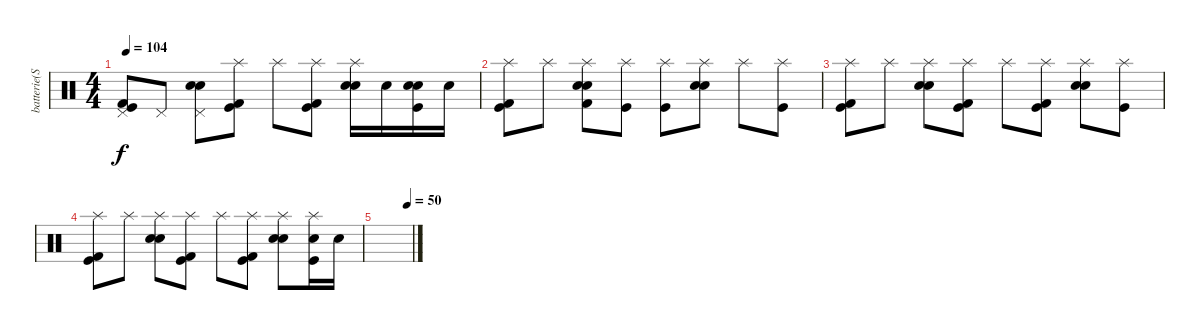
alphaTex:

\track ("batterie(Schemel)" "batterie(S") {instrument percussion}
\staff {score}
\articulation defaults
\ts (4 4)
\tempo 104
\clef neutral
\ks c
("Pedal Hi-Hat (hit)" "Kick (hit) 2" "Kick (hit)").8{dy f} "Pedal Hi-Hat (hit)".8 ("Pedal Hi-Hat (hit)" "Electric Snare (hit)" "Snare (hit) 2").8 ("Splash (hit)" "Kick (hit) 2" "Kick (hit)").8 "Splash (hit)".8 ("Splash (hit)" "Kick (hit) 2" "Kick (hit)").8 ("Splash (hit)" "Electric Snare (hit)" "Snare (hit) 2").16 "Snare (hit) 2".16 ("Electric Snare (hit)" "Snare (hit) 2" "Kick (hit)").16 "Snare (hit) 2".16 |
("Splash (hit)" "Kick (hit) 2" "Kick (hit)").8 "Splash (hit)".8 ("Splash (hit)" "Electric Snare (hit)" "Snare (hit) 2" "Kick (hit) 2").8 ("Splash (hit)" "Kick (hit)").8 ("Splash (hit)" "Kick (hit)").8 ("Splash (hit)" "Electric Snare (hit)" "Snare (hit) 2").8 "Splash (hit)".8 ("Splash (hit)" "Kick (hit)").8 |
("Splash (hit)" "Kick (hit) 2" "Kick (hit)").8 "Splash (hit)".8 ("Splash (hit)" "Electric Snare (hit)" "Snare (hit) 2").8 ("Splash (hit)" "Kick (hit) 2" "Kick (hit)").8 "Splash (hit)".8 ("Splash (hit)" "Kick (hit) 2" "Kick (hit)").8 ("Splash (hit)" "Electric Snare (hit)" "Snare (hit) 2").8 ("Splash (hit)" "Kick (hit)").8 |
("Splash (hit)" "Kick (hit) 2" "Kick (hit)").8 "Splash (hit)".8 ("Splash (hit)" "Electric Snare (hit)" "Snare (hit) 2").8 ("Splash (hit)" "Kick (hit) 2" "Kick (hit)").8 "Splash (hit)".8 ("Splash (hit)" "Kick (hit) 2" "Kick (hit)").8 ("Splash (hit)" "Electric Snare (hit)" "Snare (hit) 2").8 ("Splash (hit)" "Snare (hit) 2" "Kick (hit)").16 "Snare (hit) 2".16 |
\tempo (50 0.875)
